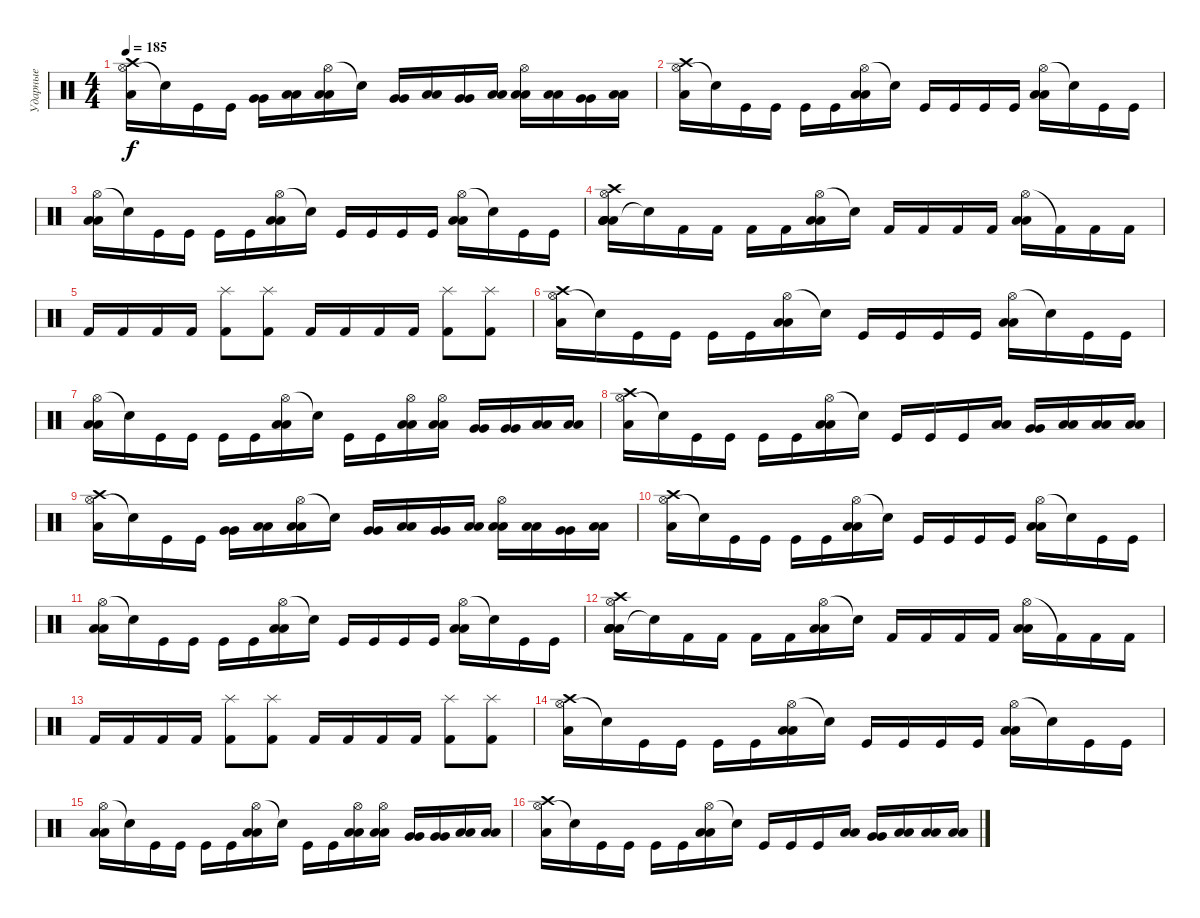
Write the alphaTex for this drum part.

\track ("Ударные" "Ударные") {instrument percussion}
\staff {score}
\articulation defaults
\ts (4 4)
\tempo 185
\clef neutral
\ks c
("Hi-Hat (open)" "Crash high (hit)" "Low Tom (hit)").16{dy f volume 13 balance 8} "Snare (hit)"{t}.16 "Kick (hit)".16 "Kick (hit)".16 ("Very Low Tom (hit)" "Very Low Tom (hit)").16{balance 10} ("Low Floor Tom (hit)" "Low Floor Tom (hit)").16{balance 5} ("Hi-Hat (open)" "Low Tom (hit)" "Low Tom (hit)").16{balance 8} "Snare (hit)"{t}.16 ("Very Low Tom (hit)" "Very Low Tom (hit)").16{balance 10} ("Low Floor Tom (hit)" "Low Floor Tom (hit)").16 ("Very Low Tom (hit)" "Very Low Tom (hit)").16{balance 10} ("Low Floor Tom (hit)" "Low Floor Tom (hit)").16 ("Hi-Hat (open)" "Low Tom (hit)" "Low Tom (hit)").16{balance 8} ("Low Floor Tom (hit)" "Low Floor Tom (hit)").16{balance 6} ("Very Low Tom (hit)" "Very Low Tom (hit)").16 ("Low Floor Tom (hit)" "Low Floor Tom (hit)").16{balance 5} |
("Hi-Hat (open)" "Crash high (hit)" "Low Tom (hit)").16{volume 13} "Snare (hit)"{t}.16 "Kick (hit)".16 "Kick (hit)".16 "Kick (hit)".16 "Kick (hit)".16 ("Hi-Hat (open)" "Low Tom (hit)" "Low Tom (hit)").16 "Snare (hit)"{t}.16 "Kick (hit)".16 "Kick (hit)".16 "Kick (hit)".16 "Kick (hit)".16 ("Hi-Hat (open)" "Low Tom (hit)" "Low Tom (hit)").16 "Snare (hit)"{t}.16 "Kick (hit)".16 "Kick (hit)".16 |
("Hi-Hat (open)" "Low Tom (hit)" "Low Tom (hit)").16 "Snare (hit)"{t}.16 "Kick (hit)".16 "Kick (hit)".16 "Kick (hit)".16 "Kick (hit)".16 ("Hi-Hat (open)" "Low Tom (hit)" "Low Tom (hit)").16 "Snare (hit)"{t}.16 "Kick (hit)".16 "Kick (hit)".16 "Kick (hit)".16 "Kick (hit)".16 ("Hi-Hat (open)" "Low Tom (hit)" "Low Tom (hit)").16 "Snare (hit)"{t}.16 "Kick (hit)".16 "Kick (hit)".16 |
("Low Floor Tom (hit)" "Hi-Hat (open)" "Crash high (hit)" "Low Tom (hit)" "Low Floor Tom (hit)" "Low Floor Tom (hit)").16 "Snare (hit)"{t}.16 "Kick (hit) 2".16 "Kick (hit) 2".16 "Kick (hit) 2".16 "Kick (hit) 2".16 ("Hi-Hat (open)" "Low Tom (hit)" "Low Tom (hit)").16 "Snare (hit)"{t}.16 "Kick (hit) 2".16 "Kick (hit) 2".16 "Kick (hit) 2".16 "Kick (hit) 2".16 ("Hi-Hat (open)" "Low Tom (hit)" "Low Tom (hit)").16 "Kick (hit) 2"{t}.16 "Kick (hit) 2".16 "Kick (hit) 2".16 |
"Kick (hit) 2".16 "Kick (hit) 2".16 "Kick (hit) 2".16 "Kick (hit) 2".16 ("Splash (hit)" "Kick (hit) 2").8 ("Splash (hit)" "Kick (hit) 2").8 "Kick (hit) 2".16 "Kick (hit) 2".16 "Kick (hit) 2".16 "Kick (hit) 2".16 ("Splash (hit)" "Kick (hit) 2").8 ("Splash (hit)" "Kick (hit) 2").8 |
("Hi-Hat (open)" "Crash high (hit)" "Low Tom (hit)").16{volume 13} "Snare (hit)"{t}.16 "Kick (hit)".16 "Kick (hit)".16 "Kick (hit)".16 "Kick (hit)".16 ("Hi-Hat (open)" "Low Tom (hit)" "Low Tom (hit)").16 "Snare (hit)"{t}.16 "Kick (hit)".16 "Kick (hit)".16 "Kick (hit)".16 "Kick (hit)".16 ("Hi-Hat (open)" "Low Tom (hit)" "Low Tom (hit)").16 "Snare (hit)"{t}.16 "Kick (hit)".16 "Kick (hit)".16 |
("Hi-Hat (open)" "Low Tom (hit)" "Low Tom (hit)").16 "Snare (hit)"{t}.16 "Kick (hit)".16 "Kick (hit)".16 "Kick (hit)".16 "Kick (hit)".16 ("Hi-Hat (open)" "Low Tom (hit)" "Low Tom (hit)").16 "Snare (hit)"{t}.16 "Kick (hit)".16 "Kick (hit)".16 ("Hi-Hat (open)" "Low Tom (hit)" "Low Tom (hit)").16 ("Hi-Hat (open)" "Low Tom (hit)" "Low Tom (hit)").16 ("Very Low Tom (hit)" "Very Low Tom (hit)").16{balance 10} ("Very Low Tom (hit)" "Very Low Tom (hit)").16 ("Low Floor Tom (hit)" "Low Floor Tom (hit)").16{balance 6} ("Low Floor Tom (hit)" "Low Floor Tom (hit)").16 |
("Hi-Hat (open)" "Crash high (hit)" "Low Tom (hit)").16{balance 8} "Snare (hit)"{t}.16 "Kick (hit)".16 "Kick (hit)".16 "Kick (hit)".16 "Kick (hit)".16 ("Hi-Hat (open)" "Low Tom (hit)" "Low Tom (hit)").16 "Snare (hit)"{t}.16 "Kick (hit)".16 "Kick (hit)".16 "Kick (hit)".16 ("Low Tom (hit)" "Low Tom (hit)").16 ("Very Low Tom (hit)" "Very Low Tom (hit)").16{balance 10} ("Low Floor Tom (hit)" "Low Floor Tom (hit)").16{balance 6} ("Low Floor Tom (hit)" "Low Floor Tom (hit)").16 ("Low Floor Tom (hit)" "Low Floor Tom (hit)").16 |
("Hi-Hat (open)" "Crash high (hit)" "Low Tom (hit)").16{volume 13 balance 8} "Snare (hit)"{t}.16 "Kick (hit)".16 "Kick (hit)".16 ("Very Low Tom (hit)" "Very Low Tom (hit)").16{balance 10} ("Low Floor Tom (hit)" "Low Floor Tom (hit)").16{balance 5} ("Hi-Hat (open)" "Low Tom (hit)" "Low Tom (hit)").16{balance 8} "Snare (hit)"{t}.16 ("Very Low Tom (hit)" "Very Low Tom (hit)").16{balance 10} ("Low Floor Tom (hit)" "Low Floor Tom (hit)").16 ("Very Low Tom (hit)" "Very Low Tom (hit)").16{balance 10} ("Low Floor Tom (hit)" "Low Floor Tom (hit)").16 ("Hi-Hat (open)" "Low Tom (hit)" "Low Tom (hit)").16{balance 8} ("Low Floor Tom (hit)" "Low Floor Tom (hit)").16{balance 6} ("Very Low Tom (hit)" "Very Low Tom (hit)").16 ("Low Floor Tom (hit)" "Low Floor Tom (hit)").16{balance 5} |
("Hi-Hat (open)" "Crash high (hit)" "Low Tom (hit)").16{volume 13} "Snare (hit)"{t}.16 "Kick (hit)".16 "Kick (hit)".16 "Kick (hit)".16 "Kick (hit)".16 ("Hi-Hat (open)" "Low Tom (hit)" "Low Tom (hit)").16 "Snare (hit)"{t}.16 "Kick (hit)".16 "Kick (hit)".16 "Kick (hit)".16 "Kick (hit)".16 ("Hi-Hat (open)" "Low Tom (hit)" "Low Tom (hit)").16 "Snare (hit)"{t}.16 "Kick (hit)".16 "Kick (hit)".16 |
("Hi-Hat (open)" "Low Tom (hit)" "Low Tom (hit)").16 "Snare (hit)"{t}.16 "Kick (hit)".16 "Kick (hit)".16 "Kick (hit)".16 "Kick (hit)".16 ("Hi-Hat (open)" "Low Tom (hit)" "Low Tom (hit)").16 "Snare (hit)"{t}.16 "Kick (hit)".16 "Kick (hit)".16 "Kick (hit)".16 "Kick (hit)".16 ("Hi-Hat (open)" "Low Tom (hit)" "Low Tom (hit)").16 "Snare (hit)"{t}.16 "Kick (hit)".16 "Kick (hit)".16 |
("Low Floor Tom (hit)" "Hi-Hat (open)" "Crash high (hit)" "Low Tom (hit)" "Low Floor Tom (hit)" "Low Floor Tom (hit)").16 "Snare (hit)"{t}.16 "Kick (hit) 2".16 "Kick (hit) 2".16 "Kick (hit) 2".16 "Kick (hit) 2".16 ("Hi-Hat (open)" "Low Tom (hit)" "Low Tom (hit)").16 "Snare (hit)"{t}.16 "Kick (hit) 2".16 "Kick (hit) 2".16 "Kick (hit) 2".16 "Kick (hit) 2".16 ("Hi-Hat (open)" "Low Tom (hit)" "Low Tom (hit)").16 "Kick (hit) 2"{t}.16 "Kick (hit) 2".16 "Kick (hit) 2".16 |
"Kick (hit) 2".16 "Kick (hit) 2".16 "Kick (hit) 2".16 "Kick (hit) 2".16 ("Splash (hit)" "Kick (hit) 2").8 ("Splash (hit)" "Kick (hit) 2").8 "Kick (hit) 2".16 "Kick (hit) 2".16 "Kick (hit) 2".16 "Kick (hit) 2".16 ("Splash (hit)" "Kick (hit) 2").8 ("Splash (hit)" "Kick (hit) 2").8 |
("Hi-Hat (open)" "Crash high (hit)" "Low Tom (hit)").16{volume 13} "Snare (hit)"{t}.16 "Kick (hit)".16 "Kick (hit)".16 "Kick (hit)".16 "Kick (hit)".16 ("Hi-Hat (open)" "Low Tom (hit)" "Low Tom (hit)").16 "Snare (hit)"{t}.16 "Kick (hit)".16 "Kick (hit)".16 "Kick (hit)".16 "Kick (hit)".16 ("Hi-Hat (open)" "Low Tom (hit)" "Low Tom (hit)").16 "Snare (hit)"{t}.16 "Kick (hit)".16 "Kick (hit)".16 |
("Hi-Hat (open)" "Low Tom (hit)" "Low Tom (hit)").16 "Snare (hit)"{t}.16 "Kick (hit)".16 "Kick (hit)".16 "Kick (hit)".16 "Kick (hit)".16 ("Hi-Hat (open)" "Low Tom (hit)" "Low Tom (hit)").16 "Snare (hit)"{t}.16 "Kick (hit)".16 "Kick (hit)".16 ("Hi-Hat (open)" "Low Tom (hit)" "Low Tom (hit)").16 ("Hi-Hat (open)" "Low Tom (hit)" "Low Tom (hit)").16 ("Very Low Tom (hit)" "Very Low Tom (hit)").16{balance 10} ("Very Low Tom (hit)" "Very Low Tom (hit)").16 ("Low Floor Tom (hit)" "Low Floor Tom (hit)").16{balance 6} ("Low Floor Tom (hit)" "Low Floor Tom (hit)").16 |
("Hi-Hat (open)" "Crash high (hit)" "Low Tom (hit)").16{balance 8} "Snare (hit)"{t}.16 "Kick (hit)".16 "Kick (hit)".16 "Kick (hit)".16 "Kick (hit)".16 ("Hi-Hat (open)" "Low Tom (hit)" "Low Tom (hit)").16 "Snare (hit)"{t}.16 "Kick (hit)".16 "Kick (hit)".16 "Kick (hit)".16 ("Low Tom (hit)" "Low Tom (hit)").16 ("Very Low Tom (hit)" "Very Low Tom (hit)").16{balance 10} ("Low Floor Tom (hit)" "Low Floor Tom (hit)").16{balance 6} ("Low Floor Tom (hit)" "Low Floor Tom (hit)").16 ("Low Floor Tom (hit)" "Low Floor Tom (hit)").16
